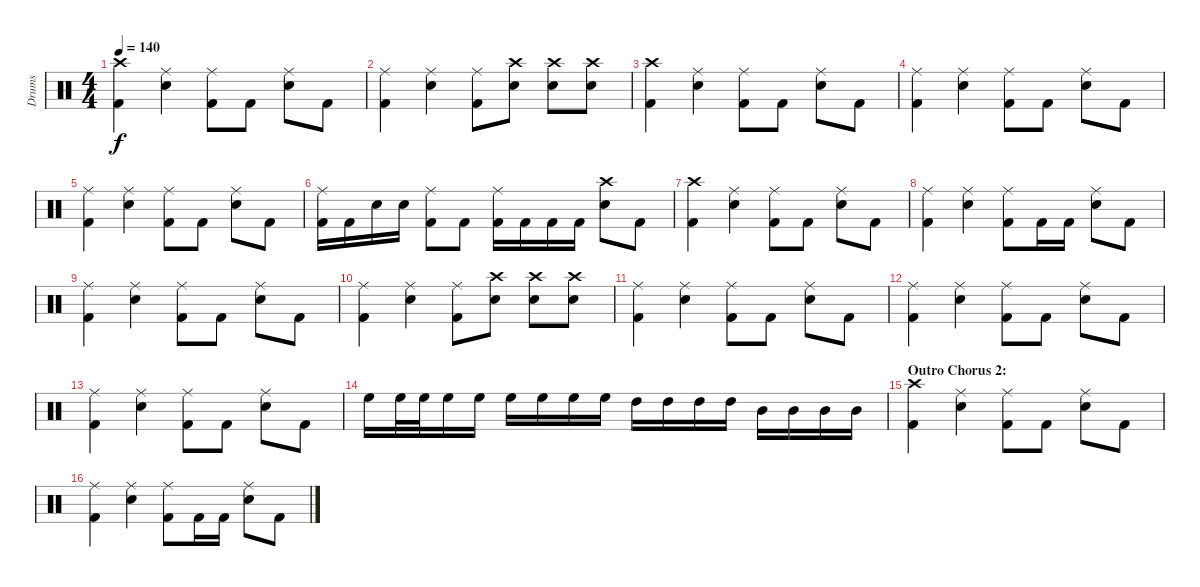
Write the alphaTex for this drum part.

\track ("Drums" "Drums") {instrument percussion}
\staff {score}
\articulation defaults
\ts (4 4)
\tempo 140
\clef neutral
\ks c
("Crash high (hit)" "Kick (hit) 2").4{dy f} ("Ride (middle)" "Electric Snare (hit)").4 ("Ride (middle)" "Kick (hit) 2").8 "Kick (hit) 2".8 ("Ride (middle)" "Electric Snare (hit)").8 "Kick (hit) 2".8 |
("Ride (middle)" "Kick (hit) 2").4 ("Ride (middle)" "Electric Snare (hit)").4 ("Ride (middle)" "Kick (hit) 2").8 ("Crash high (hit)" "Electric Snare (hit)").8 ("Crash high (hit)" "Electric Snare (hit)").8 ("Crash high (hit)" "Electric Snare (hit)").8 |
("Crash high (hit)" "Kick (hit) 2").4 ("Ride (middle)" "Electric Snare (hit)").4 ("Ride (middle)" "Kick (hit) 2").8 "Kick (hit) 2".8 ("Ride (middle)" "Electric Snare (hit)").8 "Kick (hit) 2".8 |
("Ride (middle)" "Kick (hit) 2").4 ("Ride (middle)" "Electric Snare (hit)").4 ("Ride (middle)" "Kick (hit) 2").8 "Kick (hit) 2".8 ("Ride (middle)" "Electric Snare (hit)").8 "Kick (hit) 2".8 |
("Ride (middle)" "Kick (hit) 2").4 ("Ride (middle)" "Electric Snare (hit)").4 ("Ride (middle)" "Kick (hit) 2").8 "Kick (hit) 2".8 ("Ride (middle)" "Electric Snare (hit)").8 "Kick (hit) 2".8 |
("Ride (middle)" "Kick (hit) 2").16 "Kick (hit) 2".16 "Electric Snare (hit)".16 "Electric Snare (hit)".16 ("Ride (middle)" "Kick (hit) 2").8 "Kick (hit) 2".8 ("Ride (middle)" "Kick (hit) 2").16 "Kick (hit) 2".16 "Kick (hit) 2".16 "Kick (hit) 2".16 ("Crash high (hit)" "Electric Snare (hit)").8 "Kick (hit) 2".8 |
("Crash high (hit)" "Kick (hit) 2").4 ("Ride (middle)" "Electric Snare (hit)").4 ("Ride (middle)" "Kick (hit) 2").8 "Kick (hit) 2".8 ("Ride (middle)" "Electric Snare (hit)").8 "Kick (hit) 2".8 |
("Ride (middle)" "Kick (hit) 2").4 ("Ride (middle)" "Electric Snare (hit)").4 ("Ride (middle)" "Kick (hit) 2").8 "Kick (hit) 2".16 "Kick (hit) 2".16 ("Ride (middle)" "Electric Snare (hit)").8 "Kick (hit) 2".8 |
("Ride (middle)" "Kick (hit) 2").4 ("Ride (middle)" "Electric Snare (hit)").4 ("Ride (middle)" "Kick (hit) 2").8 "Kick (hit) 2".8 ("Ride (middle)" "Electric Snare (hit)").8 "Kick (hit) 2".8 |
("Ride (middle)" "Kick (hit) 2").4 ("Ride (middle)" "Electric Snare (hit)").4 ("Ride (middle)" "Kick (hit) 2").8 ("Crash high (hit)" "Electric Snare (hit)").8 ("Crash high (hit)" "Electric Snare (hit)").8 ("Crash high (hit)" "Electric Snare (hit)").8 |
("Ride (middle)" "Kick (hit) 2").4 ("Ride (middle)" "Electric Snare (hit)").4 ("Ride (middle)" "Kick (hit) 2").8 "Kick (hit) 2".8 ("Ride (middle)" "Electric Snare (hit)").8 "Kick (hit) 2".8 |
("Ride (middle)" "Kick (hit) 2").4 ("Ride (middle)" "Electric Snare (hit)").4 ("Ride (middle)" "Kick (hit) 2").8 "Kick (hit) 2".8 ("Ride (middle)" "Electric Snare (hit)").8 "Kick (hit) 2".8 |
("Ride (middle)" "Kick (hit) 2").4 ("Ride (middle)" "Electric Snare (hit)").4 ("Ride (middle)" "Kick (hit) 2").8 "Kick (hit) 2".8 ("Ride (middle)" "Electric Snare (hit)").8 "Kick (hit) 2".8 |
"High Floor Tom (hit)".16 "High Floor Tom (hit)".32 "High Floor Tom (hit)".32 "High Floor Tom (hit)".16 "High Floor Tom (hit)".16 "High Floor Tom (hit)".16 "High Floor Tom (hit)".16 "High Floor Tom (hit)".16 "High Floor Tom (hit)".16 "High Tom (hit)".16 "High Tom (hit)".16 "High Tom (hit)".16 "High Tom (hit)".16 "Mid Tom (hit)".16 "Mid Tom (hit)".16 "Mid Tom (hit)".16 "Mid Tom (hit)".16 |
\section ("" "Outro Chorus 2:")
("Crash high (hit)" "Kick (hit) 2").4 ("Ride (middle)" "Electric Snare (hit)").4 ("Ride (middle)" "Kick (hit) 2").8 "Kick (hit) 2".8 ("Ride (middle)" "Electric Snare (hit)").8 "Kick (hit) 2".8 |
("Ride (middle)" "Kick (hit) 2").4 ("Ride (middle)" "Electric Snare (hit)").4 ("Ride (middle)" "Kick (hit) 2").8 "Kick (hit) 2".16 "Kick (hit) 2".16 ("Ride (middle)" "Electric Snare (hit)").8 "Kick (hit) 2".8
